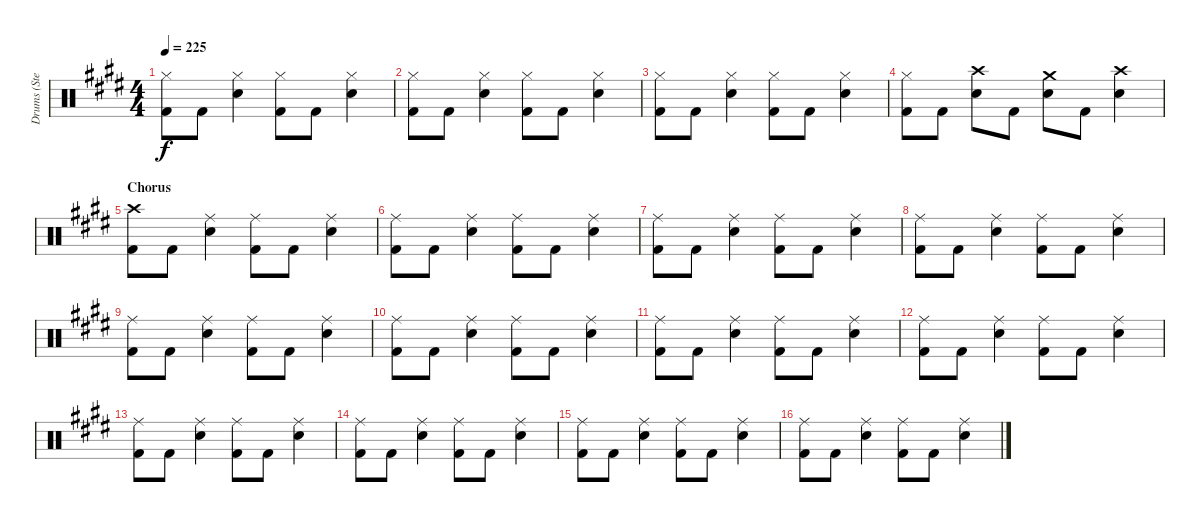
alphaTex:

\track ("Drums (Steven)" "Drums (Ste") {instrument percussion}
\staff {score}
\articulation defaults
\ts (4 4)
\tempo 225
\clef neutral
\ks e
("Hi-Hat (closed)" "Kick (hit) 2").8{dy f} "Kick (hit) 2".8 ("Hi-Hat (closed)" "Snare (hit) 2").4 ("Hi-Hat (closed)" "Kick (hit) 2").8 "Kick (hit) 2".8 ("Hi-Hat (closed)" "Snare (hit) 2").4 |
("Hi-Hat (closed)" "Kick (hit) 2").8 "Kick (hit) 2".8 ("Hi-Hat (closed)" "Snare (hit) 2").4 ("Hi-Hat (closed)" "Kick (hit) 2").8 "Kick (hit) 2".8 ("Hi-Hat (closed)" "Snare (hit) 2").4 |
("Hi-Hat (closed)" "Kick (hit) 2").8 "Kick (hit) 2".8 ("Hi-Hat (closed)" "Snare (hit) 2").4 ("Hi-Hat (closed)" "Kick (hit) 2").8 "Kick (hit) 2".8 ("Hi-Hat (closed)" "Snare (hit) 2").4 |
("Hi-Hat (closed)" "Kick (hit) 2").8 "Kick (hit) 2".8 ("Crash high (hit)" "Snare (hit) 2").8 "Kick (hit) 2".8 ("Crash medium (hit)" "Snare (hit) 2").8 "Kick (hit) 2".8 ("Crash high (hit)" "Snare (hit) 2").4 |
\section ("" "Chorus")
("Crash high (hit)" "Kick (hit) 2").8 "Kick (hit) 2".8 ("Ride (middle)" "Snare (hit) 2").4 ("Ride (middle)" "Kick (hit) 2").8 "Kick (hit) 2".8 ("Ride (middle)" "Snare (hit) 2").4 |
("Ride (middle)" "Kick (hit) 2").8 "Kick (hit) 2".8 ("Ride (middle)" "Snare (hit) 2").4 ("Ride (middle)" "Kick (hit) 2").8 "Kick (hit) 2".8 ("Ride (middle)" "Snare (hit) 2").4 |
("Ride (middle)" "Kick (hit) 2").8 "Kick (hit) 2".8 ("Ride (middle)" "Snare (hit) 2").4 ("Ride (middle)" "Kick (hit) 2").8 "Kick (hit) 2".8 ("Ride (middle)" "Snare (hit) 2").4 |
("Ride (middle)" "Kick (hit) 2").8 "Kick (hit) 2".8 ("Ride (middle)" "Snare (hit) 2").4 ("Ride (middle)" "Kick (hit) 2").8 "Kick (hit) 2".8 ("Ride (middle)" "Snare (hit) 2").4 |
("Ride (middle)" "Kick (hit) 2").8 "Kick (hit) 2".8 ("Ride (middle)" "Snare (hit) 2").4 ("Ride (middle)" "Kick (hit) 2").8 "Kick (hit) 2".8 ("Ride (middle)" "Snare (hit) 2").4 |
("Ride (middle)" "Kick (hit) 2").8 "Kick (hit) 2".8 ("Ride (middle)" "Snare (hit) 2").4 ("Ride (middle)" "Kick (hit) 2").8 "Kick (hit) 2".8 ("Ride (middle)" "Snare (hit) 2").4 |
("Ride (middle)" "Kick (hit) 2").8 "Kick (hit) 2".8 ("Ride (middle)" "Snare (hit) 2").4 ("Ride (middle)" "Kick (hit) 2").8 "Kick (hit) 2".8 ("Ride (middle)" "Snare (hit) 2").4 |
("Ride (middle)" "Kick (hit) 2").8 "Kick (hit) 2".8 ("Ride (middle)" "Snare (hit) 2").4 ("Ride (middle)" "Kick (hit) 2").8 "Kick (hit) 2".8 ("Ride (middle)" "Snare (hit) 2").4 |
("Ride (middle)" "Kick (hit) 2").8 "Kick (hit) 2".8 ("Ride (middle)" "Snare (hit) 2").4 ("Ride (middle)" "Kick (hit) 2").8 "Kick (hit) 2".8 ("Ride (middle)" "Snare (hit) 2").4 |
("Ride (middle)" "Kick (hit) 2").8 "Kick (hit) 2".8 ("Ride (middle)" "Snare (hit) 2").4 ("Ride (middle)" "Kick (hit) 2").8 "Kick (hit) 2".8 ("Ride (middle)" "Snare (hit) 2").4 |
("Ride (middle)" "Kick (hit) 2").8 "Kick (hit) 2".8 ("Ride (middle)" "Snare (hit) 2").4 ("Ride (middle)" "Kick (hit) 2").8 "Kick (hit) 2".8 ("Ride (middle)" "Snare (hit) 2").4 |
("Ride (middle)" "Kick (hit) 2").8 "Kick (hit) 2".8 ("Ride (middle)" "Snare (hit) 2").4 ("Ride (middle)" "Kick (hit) 2").8 "Kick (hit) 2".8 ("Ride (middle)" "Snare (hit) 2").4
